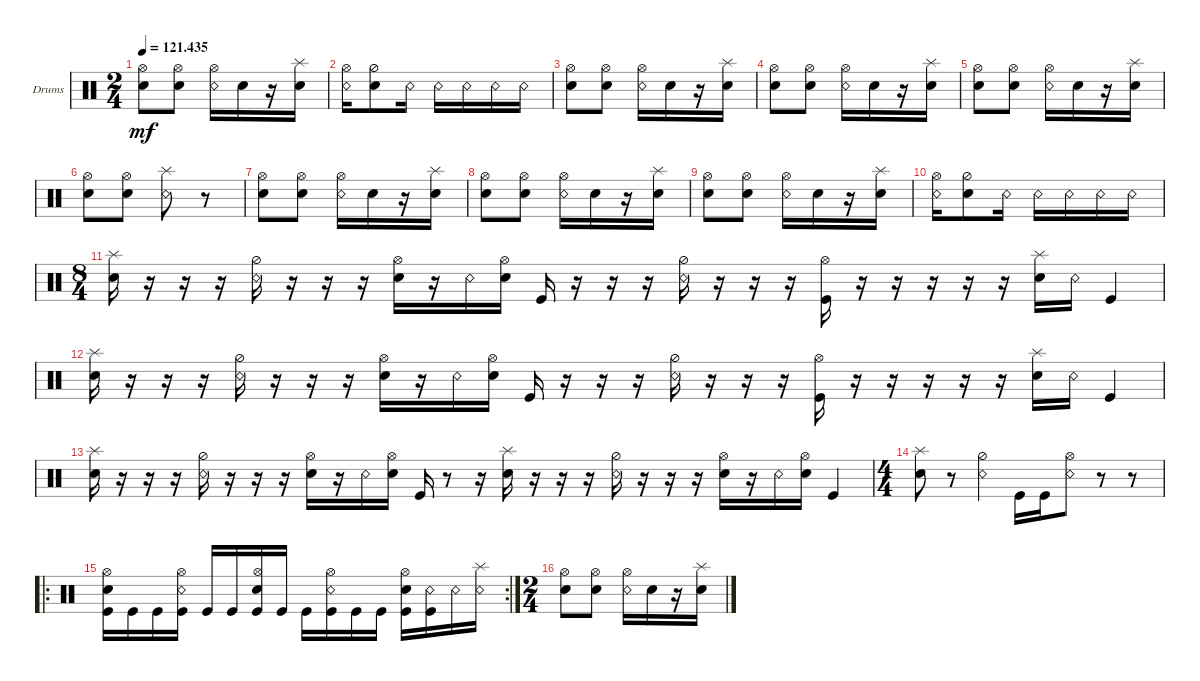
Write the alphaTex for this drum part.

\bracketExtendMode groupsimilarinstruments
\firstSystemTrackNameOrientation horizontal
\otherSystemsTrackNameOrientation horizontal
\track ("Drumkit" "Drums") {instrument percussion}
\staff {score}
\articulation defaults
\ts (2 4)
\tempo
121.435
\accidentals auto
\clef neutral
\ottava regular
\simile none
\ks c
("Snare (hit) 2" "Hi-Hat (open)").8{dy mf} ("Snare (hit) 2" "Hi-Hat (open)").8 ("Snare (rim shot)" "Hi-Hat (open)").16 "Snare (hit) 2".16 r.16 ("Snare (hit) 2" "Splash (hit)").16 |
("Snare (rim shot)" "Hi-Hat (open)").16 ("Snare (hit) 2" "Hi-Hat (half)").8 "Snare (rim shot)".16 "Snare (rim shot)".16 "Snare (rim shot)".16 "Snare (rim shot)".16 "Snare (rim shot)".16 |
("Snare (hit) 2" "Hi-Hat (open)").8 ("Snare (hit) 2" "Hi-Hat (open)").8 ("Snare (rim shot)" "Hi-Hat (open)").16 "Snare (hit) 2".16 r.16 ("Snare (hit) 2" "Splash (hit)").16 |
("Snare (hit) 2" "Hi-Hat (open)").8 ("Snare (hit) 2" "Hi-Hat (open)").8 ("Snare (rim shot)" "Hi-Hat (open)").16 "Snare (hit) 2".16 r.16 ("Snare (hit) 2" "Splash (hit)").16 |
("Snare (hit) 2" "Hi-Hat (open)").8 ("Snare (hit) 2" "Hi-Hat (open)").8 ("Snare (rim shot)" "Hi-Hat (open)").16 "Snare (hit) 2".16 r.16 ("Snare (hit) 2" "Splash (hit)").16 |
("Snare (hit) 2" "Hi-Hat (open)").8 ("Snare (hit) 2" "Hi-Hat (open)").8 ("Snare (rim shot)" "Splash (hit)").8 r.8 |
("Snare (hit) 2" "Hi-Hat (open)").8 ("Snare (hit) 2" "Hi-Hat (open)").8 ("Snare (rim shot)" "Hi-Hat (open)").16 "Snare (hit) 2".16 r.16 ("Snare (hit) 2" "Splash (hit)").16 |
("Snare (hit) 2" "Hi-Hat (open)").8 ("Snare (hit) 2" "Hi-Hat (open)").8 ("Snare (rim shot)" "Hi-Hat (open)").16 "Snare (hit) 2".16 r.16 ("Snare (hit) 2" "Splash (hit)").16 |
("Snare (hit) 2" "Hi-Hat (open)").8 ("Snare (hit) 2" "Hi-Hat (open)").8 ("Snare (rim shot)" "Hi-Hat (open)").16 "Snare (hit) 2".16 r.16 ("Snare (hit) 2" "Splash (hit)").16 |
("Snare (rim shot)" "Hi-Hat (open)").16 ("Snare (hit) 2" "Hi-Hat (half)").8 "Snare (rim shot)".16 "Snare (rim shot)".16 "Snare (rim shot)".16 "Snare (rim shot)".16 "Snare (rim shot)".16 |
\ts (8 4)
("Snare (hit) 2" "Splash (hit)").16 r.16 r.16 r.16 ("Snare (rim shot)" "Hi-Hat (half)").16 r.16 r.16 r.16 ("Hi-Hat (open)" "Snare (hit) 2").16 r.16 "Snare (rim shot)".16 ("Snare (hit) 2" "Hi-Hat (open)").16 "Kick (hit)".16 r.16 r.16 r.16 ("Snare (rim shot)" "Hi-Hat (half)").16 r.16 r.16 r.16 ("Kick (hit)" "Hi-Hat (open)").16 r.16 r.16 r.16 r.16 r.16 ("Snare (hit) 2" "Splash (hit)").16 "Snare (rim shot)".16 "Kick (hit)".4 |
("Snare (hit) 2" "Splash (hit)").16 r.16 r.16 r.16 ("Snare (rim shot)" "Hi-Hat (half)").16 r.16 r.16 r.16 ("Hi-Hat (open)" "Snare (hit) 2").16 r.16 "Snare (rim shot)".16 ("Snare (hit) 2" "Hi-Hat (open)").16 "Kick (hit)".16 r.16 r.16 r.16 ("Snare (rim shot)" "Hi-Hat (half)").16 r.16 r.16 r.16 ("Kick (hit)" "Hi-Hat (open)").16 r.16 r.16 r.16 r.16 r.16 ("Snare (hit) 2" "Splash (hit)").16 "Snare (rim shot)".16 "Kick (hit)".4 |
("Snare (hit) 2" "Splash (hit)").16 r.16 r.16 r.16 ("Snare (rim shot)" "Hi-Hat (half)").16 r.16 r.16 r.16 ("Hi-Hat (open)" "Snare (hit) 2").16 r.16 "Snare (rim shot)".16 ("Snare (hit) 2" "Hi-Hat (open)").16 "Kick (hit)".16 r.8 r.16 ("Snare (hit) 2" "Splash (hit)").16 r.16 r.16 r.16 ("Snare (rim shot)" "Hi-Hat (half)").16 r.16 r.16 r.16 ("Hi-Hat (open)" "Snare (hit) 2").16 r.16 "Snare (rim shot)".16 ("Snare (hit) 2" "Hi-Hat (open)").16 "Kick (hit)".4 |
\ts (4 4)
("Snare (hit) 2" "Splash (hit)").8 r.8 ("Snare (rim shot)" "Hi-Hat (half)").4 "Kick (hit)".16 "Kick (hit)".16 ("Snare (rim shot)" "Hi-Hat (open)").8 r.8 r.8 |
\ro
\rc 2
("Snare (hit) 2" "Hi-Hat (open)" "Kick (hit)").16 "Kick (hit)".16 "Kick (hit)".16 ("Snare (rim shot)" "Hi-Hat (open)" "Kick (hit)").16 "Kick (hit)".16 "Kick (hit)".16 ("Snare (hit) 2" "Hi-Hat (open)" "Kick (hit)").16 "Kick (hit)".16 "Kick (hit)".16 ("Snare (rim shot)" "Hi-Hat (open)" "Kick (hit)").16 "Kick (hit)".16 "Kick (hit)".16 ("Snare (hit) 2" "Hi-Hat (open)" "Kick (hit)").16 ("Snare (rim shot)" "Kick (hit)").16 "Snare (rim shot)".16 ("Snare (rim shot)" "Splash (hit)").16 |
\ts (2 4)
("Snare (hit) 2" "Hi-Hat (open)").8 ("Snare (hit) 2" "Hi-Hat (open)").8 ("Snare (rim shot)" "Hi-Hat (open)").16 "Snare (hit) 2".16 r.16 ("Snare (hit) 2" "Splash (hit)").16
